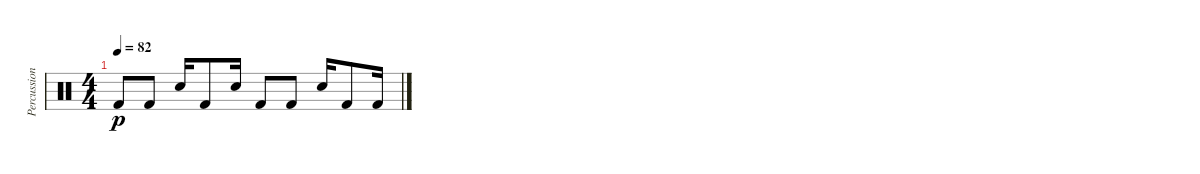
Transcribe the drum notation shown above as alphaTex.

\track ("Percussion" "Percussion") {instrument percussion}
\staff {score}
\articulation defaults
\ts (4 4)
\tempo 82
\clef neutral
\ks c "Kick (hit) 2".8{dy p} "Kick (hit) 2".8 "Snare (hit) 2".16 "Kick (hit) 2".8 "Snare (hit) 2".16 "Kick (hit) 2".8 "Kick (hit) 2".8 "Snare (hit) 2".16 "Kick (hit) 2".8 "Kick (hit) 2".16
